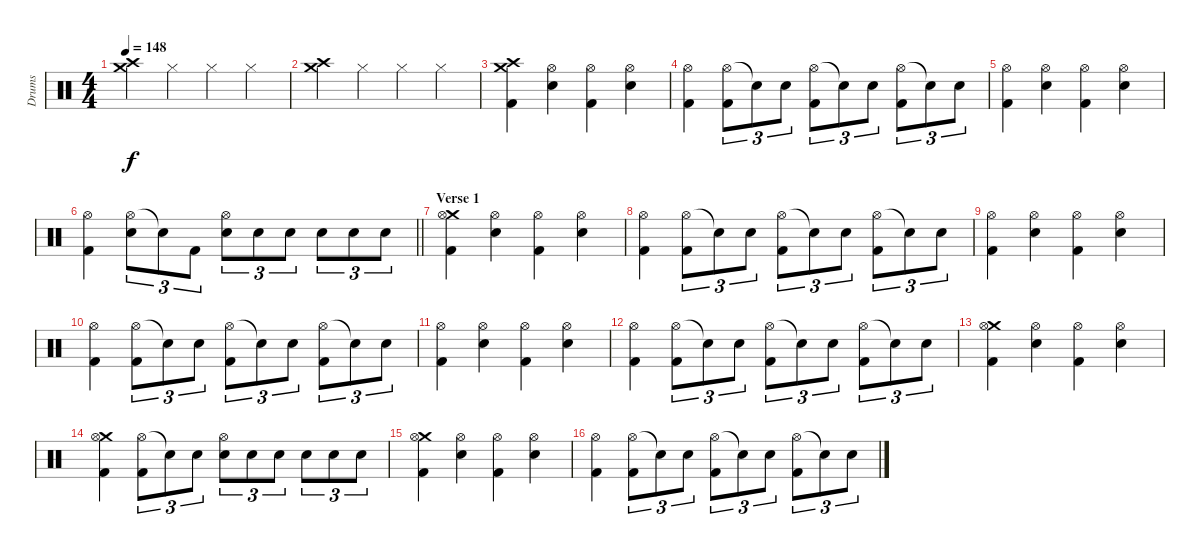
\track ("Drums" "Drums") {instrument percussion}
\staff {score}
\articulation defaults
\ts (4 4)
\tempo 148
\clef neutral
\ks c
("Crash high (hit)" "Crash medium (hit)").4{dy f} "Hi-Hat (closed)".4 "Hi-Hat (closed)".4 "Hi-Hat (closed)".4 |
("Crash high (hit)" "Crash medium (hit)").4 "Hi-Hat (closed)".4 "Hi-Hat (closed)".4 "Hi-Hat (closed)".4 |
("Crash high (hit)" "Crash medium (hit)" "Kick (hit) 2").4 ("Hi-Hat (open)" "Snare (hit) 2").4 ("Hi-Hat (open)" "Kick (hit) 2").4 ("Hi-Hat (open)" "Snare (hit) 2").4 |
("Hi-Hat (open)" "Kick (hit) 2").4 ("Hi-Hat (open)" "Kick (hit) 2").8{tu (3 2)} "Snare (hit)"{t}.8{tu (3 2)} "Snare (hit) 2".8{tu (3 2)} ("Hi-Hat (open)" "Kick (hit) 2").8{tu (3 2)} "Snare (hit)"{t}.8{tu (3 2)} "Snare (hit) 2".8{tu (3 2)} ("Hi-Hat (open)" "Kick (hit) 2").8{tu (3 2)} "Snare (hit) 2"{t}.8{tu (3 2)} "Snare (hit) 2".8{tu (3 2)} |
("Hi-Hat (open)" "Kick (hit) 2").4 ("Hi-Hat (open)" "Snare (hit) 2").4 ("Hi-Hat (open)" "Kick (hit) 2").4 ("Hi-Hat (open)" "Snare (hit) 2").4 |
\barLineRight lightlight
("Hi-Hat (open)" "Kick (hit) 2").4 ("Hi-Hat (open)" "Snare (hit) 2").8{tu (3 2)} "Snare (hit)"{t}.8{tu (3 2)} "Kick (hit) 2".8{tu (3 2)} ("Hi-Hat (open)" "Snare (hit) 2").8{tu (3 2)} "Snare (hit) 2".8{tu (3 2)} "Snare (hit) 2".8{tu (3 2)} "Snare (hit) 2".8{tu (3 2)} "Snare (hit) 2".8{tu (3 2)} "Snare (hit) 2".8{tu (3 2)} |
\section ("" "Verse 1")
("Crash medium (hit)" "Hi-Hat (open)" "Kick (hit) 2").4 ("Hi-Hat (open)" "Snare (hit) 2").4 ("Hi-Hat (open)" "Kick (hit) 2").4 ("Hi-Hat (open)" "Snare (hit) 2").4 |
("Hi-Hat (open)" "Kick (hit) 2").4 ("Hi-Hat (open)" "Kick (hit) 2").8{tu (3 2)} "Snare (hit)"{t}.8{tu (3 2)} "Snare (hit) 2".8{tu (3 2)} ("Hi-Hat (open)" "Kick (hit) 2").8{tu (3 2)} "Snare (hit)"{t}.8{tu (3 2)} "Snare (hit) 2".8{tu (3 2)} ("Hi-Hat (open)" "Kick (hit) 2").8{tu (3 2)} "Snare (hit) 2"{t}.8{tu (3 2)} "Snare (hit) 2".8{tu (3 2)} |
("Hi-Hat (open)" "Kick (hit) 2").4 ("Hi-Hat (open)" "Snare (hit) 2").4 ("Hi-Hat (open)" "Kick (hit) 2").4 ("Hi-Hat (open)" "Snare (hit) 2").4 |
("Hi-Hat (open)" "Kick (hit) 2").4 ("Hi-Hat (open)" "Kick (hit) 2").8{tu (3 2)} "Snare (hit)"{t}.8{tu (3 2)} "Snare (hit) 2".8{tu (3 2)} ("Hi-Hat (open)" "Kick (hit) 2").8{tu (3 2)} "Snare (hit)"{t}.8{tu (3 2)} "Snare (hit) 2".8{tu (3 2)} ("Hi-Hat (open)" "Kick (hit) 2").8{tu (3 2)} "Snare (hit) 2"{t}.8{tu (3 2)} "Snare (hit) 2".8{tu (3 2)} |
("Hi-Hat (open)" "Kick (hit) 2").4 ("Hi-Hat (open)" "Snare (hit) 2").4 ("Hi-Hat (open)" "Kick (hit) 2").4 ("Hi-Hat (open)" "Snare (hit) 2").4 |
("Hi-Hat (open)" "Kick (hit) 2").4 ("Hi-Hat (open)" "Kick (hit) 2").8{tu (3 2)} "Snare (hit)"{t}.8{tu (3 2)} "Snare (hit) 2".8{tu (3 2)} ("Hi-Hat (open)" "Kick (hit) 2").8{tu (3 2)} "Snare (hit)"{t}.8{tu (3 2)} "Snare (hit) 2".8{tu (3 2)} ("Hi-Hat (open)" "Kick (hit) 2").8{tu (3 2)} "Snare (hit) 2"{t}.8{tu (3 2)} "Snare (hit) 2".8{tu (3 2)} |
("Crash medium (hit)" "Hi-Hat (open)" "Kick (hit) 2").4 ("Hi-Hat (open)" "Snare (hit) 2").4 ("Hi-Hat (open)" "Kick (hit) 2").4 ("Hi-Hat (open)" "Snare (hit) 2").4 |
("Crash medium (hit)" "Hi-Hat (open)" "Kick (hit) 2").4 ("Hi-Hat (open)" "Kick (hit) 2").8{tu (3 2)} "Snare (hit)"{t}.8{tu (3 2)} "Snare (hit) 2".8{tu (3 2)} ("Hi-Hat (open)" "Snare (hit) 2").8{tu (3 2)} "Snare (hit) 2".8{tu (3 2)} "Snare (hit) 2".8{tu (3 2)} "Snare (hit) 2".8{tu (3 2)} "Snare (hit) 2".8{tu (3 2)} "Snare (hit) 2".8{tu (3 2)} |
("Crash medium (hit)" "Hi-Hat (open)" "Kick (hit) 2").4 ("Hi-Hat (open)" "Snare (hit) 2").4 ("Hi-Hat (open)" "Kick (hit) 2").4 ("Hi-Hat (open)" "Snare (hit) 2").4 |
("Hi-Hat (open)" "Kick (hit) 2").4 ("Hi-Hat (open)" "Kick (hit) 2").8{tu (3 2)} "Snare (hit)"{t}.8{tu (3 2)} "Snare (hit) 2".8{tu (3 2)} ("Hi-Hat (open)" "Kick (hit) 2").8{tu (3 2)} "Snare (hit)"{t}.8{tu (3 2)} "Snare (hit) 2".8{tu (3 2)} ("Hi-Hat (open)" "Kick (hit) 2").8{tu (3 2)} "Snare (hit) 2"{t}.8{tu (3 2)} "Snare (hit) 2".8{tu (3 2)}
